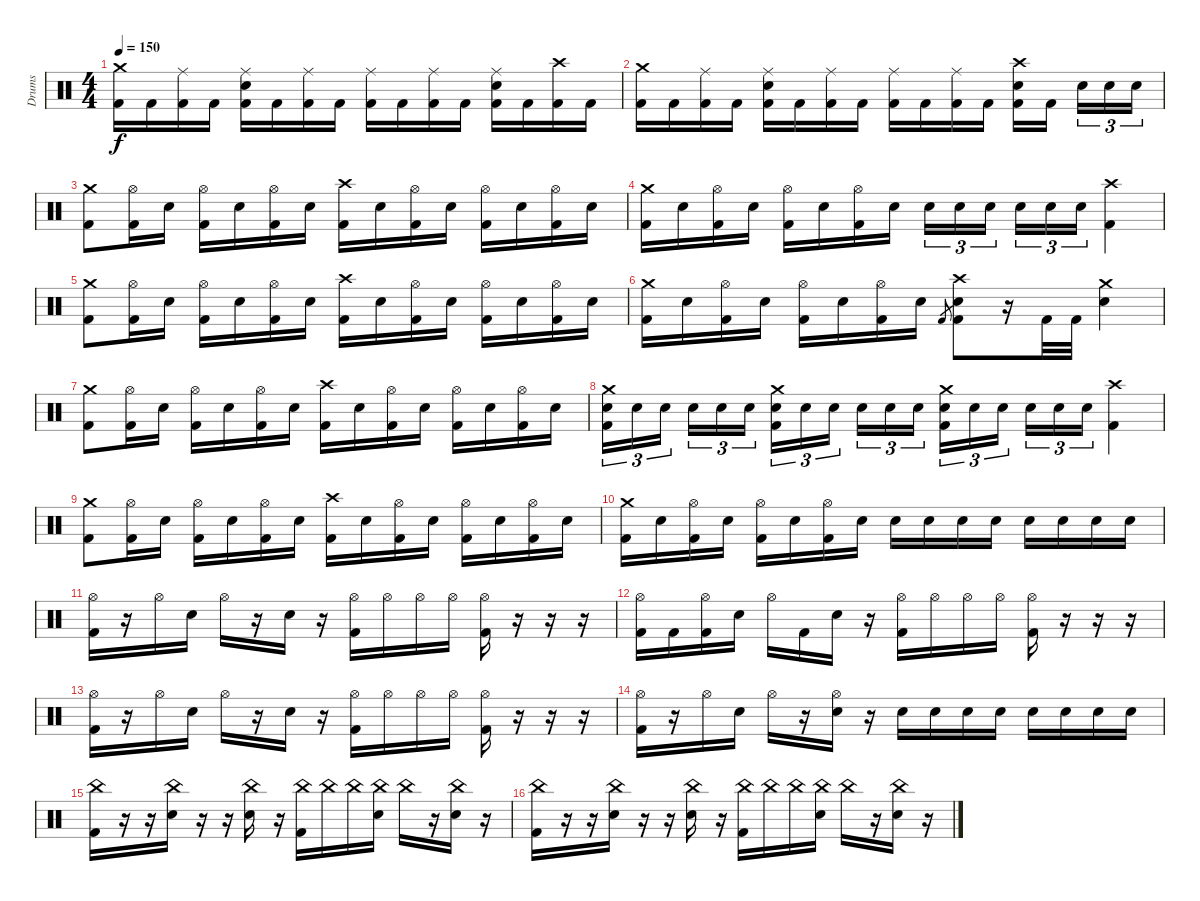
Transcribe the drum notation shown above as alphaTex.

\track ("Drums" "Drums") {instrument percussion}
\staff {score}
\articulation defaults
\ts (4 4)
\tempo 150
\clef neutral
\ks c
("Crash medium (hit)" "Kick (hit) 2").16{dy f} "Kick (hit) 2".16 ("Ride (middle)" "Kick (hit) 2").16 "Kick (hit) 2".16 ("Ride (middle)" "Electric Snare (hit)" "Kick (hit) 2").16 "Kick (hit) 2".16 ("Ride (middle)" "Kick (hit) 2").16 "Kick (hit) 2".16 ("Ride (middle)" "Kick (hit) 2").16 "Kick (hit) 2".16 ("Ride (middle)" "Kick (hit) 2").16 "Kick (hit) 2".16 ("Ride (middle)" "Electric Snare (hit)" "Kick (hit) 2").16 "Kick (hit) 2".16 ("Crash high (hit)" "Kick (hit) 2").16 "Kick (hit) 2".16 |
("Crash medium (hit)" "Kick (hit) 2").16 "Kick (hit) 2".16 ("Ride (middle)" "Kick (hit) 2").16 "Kick (hit) 2".16 ("Ride (middle)" "Electric Snare (hit)" "Kick (hit) 2").16 "Kick (hit) 2".16 ("Ride (middle)" "Kick (hit) 2").16 "Kick (hit) 2".16 ("Ride (middle)" "Kick (hit) 2").16 "Kick (hit) 2".16 ("Ride (middle)" "Kick (hit) 2").16 "Kick (hit) 2".16 ("Crash high (hit)" "Electric Snare (hit)" "Kick (hit) 2").16 "Kick (hit) 2".16 "Electric Snare (hit)".16{tu (3 2)} "Electric Snare (hit)".16{tu (3 2)} "Electric Snare (hit)".16{tu (3 2)} |
\section ("" "")
("Crash medium (hit)" "Kick (hit) 2").8 ("Hi-Hat (open)" "Kick (hit) 2").16 "Electric Snare (hit)".16 ("Hi-Hat (open)" "Kick (hit) 2").16 "Electric Snare (hit)".16 ("Hi-Hat (open)" "Kick (hit) 2").16 "Electric Snare (hit)".16 ("Crash high (hit)" "Kick (hit) 2").16 "Electric Snare (hit)".16 ("Hi-Hat (open)" "Kick (hit) 2").16 "Electric Snare (hit)".16 ("Hi-Hat (open)" "Kick (hit) 2").16 "Electric Snare (hit)".16 ("Hi-Hat (open)" "Kick (hit) 2").16 "Electric Snare (hit)".16 |
("Crash medium (hit)" "Kick (hit) 2").16 "Electric Snare (hit)".16 ("Hi-Hat (open)" "Kick (hit) 2").16 "Electric Snare (hit)".16 ("Hi-Hat (open)" "Kick (hit) 2").16 "Electric Snare (hit)".16 ("Hi-Hat (open)" "Kick (hit) 2").16 "Electric Snare (hit)".16 "Electric Snare (hit)".16{tu (3 2)} "Electric Snare (hit)".16{tu (3 2)} "Electric Snare (hit)".16{tu (3 2)} "Electric Snare (hit)".16{tu (3 2)} "Electric Snare (hit)".16{tu (3 2)} "Electric Snare (hit)".16{tu (3 2)} ("Crash high (hit)" "Kick (hit) 2").4 |
("Crash medium (hit)" "Kick (hit) 2").8 ("Hi-Hat (open)" "Kick (hit) 2").16 "Electric Snare (hit)".16 ("Hi-Hat (open)" "Kick (hit) 2").16 "Electric Snare (hit)".16 ("Hi-Hat (open)" "Kick (hit) 2").16 "Electric Snare (hit)".16 ("Crash high (hit)" "Kick (hit) 2").16 "Electric Snare (hit)".16 ("Hi-Hat (open)" "Kick (hit) 2").16 "Electric Snare (hit)".16 ("Hi-Hat (open)" "Kick (hit) 2").16 "Electric Snare (hit)".16 ("Hi-Hat (open)" "Kick (hit) 2").16 "Electric Snare (hit)".16 |
("Crash medium (hit)" "Kick (hit) 2").16 "Electric Snare (hit)".16 ("Hi-Hat (open)" "Kick (hit) 2").16 "Electric Snare (hit)".16 ("Hi-Hat (open)" "Kick (hit) 2").16 "Electric Snare (hit)".16 ("Hi-Hat (open)" "Kick (hit) 2").16 "Electric Snare (hit)".16 "Kick (hit) 2".8{gr} ("Crash high (hit)" "Electric Snare (hit)" "Kick (hit) 2").8 r.16 "Kick (hit) 2".32 "Kick (hit) 2".32 ("Crash medium (hit)" "Electric Snare (hit)").4 |
("Crash medium (hit)" "Kick (hit) 2").8 ("Hi-Hat (open)" "Kick (hit) 2").16 "Electric Snare (hit)".16 ("Hi-Hat (open)" "Kick (hit) 2").16 "Electric Snare (hit)".16 ("Hi-Hat (open)" "Kick (hit) 2").16 "Electric Snare (hit)".16 ("Crash high (hit)" "Kick (hit) 2").16 "Electric Snare (hit)".16 ("Hi-Hat (open)" "Kick (hit) 2").16 "Electric Snare (hit)".16 ("Hi-Hat (open)" "Kick (hit) 2").16 "Electric Snare (hit)".16 ("Hi-Hat (open)" "Kick (hit) 2").16 "Electric Snare (hit)".16 |
("Crash medium (hit)" "Electric Snare (hit)" "Kick (hit) 2").16{tu (3 2)} "Electric Snare (hit)".16{tu (3 2)} "Electric Snare (hit)".16{tu (3 2)} "Electric Snare (hit)".16{tu (3 2)} "Electric Snare (hit)".16{tu (3 2)} "Electric Snare (hit)".16{tu (3 2)} ("Crash medium (hit)" "Electric Snare (hit)" "Kick (hit) 2").16{tu (3 2)} "Electric Snare (hit)".16{tu (3 2)} "Electric Snare (hit)".16{tu (3 2)} "Electric Snare (hit)".16{tu (3 2)} "Electric Snare (hit)".16{tu (3 2)} "Electric Snare (hit)".16{tu (3 2)} ("Crash medium (hit)" "Electric Snare (hit)" "Kick (hit) 2").16{tu (3 2)} "Electric Snare (hit)".16{tu (3 2)} "Electric Snare (hit)".16{tu (3 2)} "Electric Snare (hit)".16{tu (3 2)} "Electric Snare (hit)".16{tu (3 2)} "Electric Snare (hit)".16{tu (3 2)} ("Crash high (hit)" "Kick (hit) 2").4 |
("Crash medium (hit)" "Kick (hit) 2").8 ("Hi-Hat (open)" "Kick (hit) 2").16 "Electric Snare (hit)".16 ("Hi-Hat (open)" "Kick (hit) 2").16 "Electric Snare (hit)".16 ("Hi-Hat (open)" "Kick (hit) 2").16 "Electric Snare (hit)".16 ("Crash high (hit)" "Kick (hit) 2").16 "Electric Snare (hit)".16 ("Hi-Hat (open)" "Kick (hit) 2").16 "Electric Snare (hit)".16 ("Hi-Hat (open)" "Kick (hit) 2").16 "Electric Snare (hit)".16 ("Hi-Hat (open)" "Kick (hit) 2").16 "Electric Snare (hit)".16 |
("Crash medium (hit)" "Kick (hit) 2").16 "Electric Snare (hit)".16 ("Hi-Hat (open)" "Kick (hit) 2").16 "Electric Snare (hit)".16 ("Hi-Hat (open)" "Kick (hit) 2").16 "Electric Snare (hit)".16 ("Hi-Hat (open)" "Kick (hit) 2").16 "Electric Snare (hit)".16 "Electric Snare (hit)".16 "Electric Snare (hit)".16 "Electric Snare (hit)".16 "Electric Snare (hit)".16 "Electric Snare (hit)".16 "Electric Snare (hit)".16 "Electric Snare (hit)".16 "Electric Snare (hit)".16 |
\section ("" "")
("Hi-Hat (open)" "Kick (hit) 2").16 r.16 "Hi-Hat (open)".16 "Electric Snare (hit)".16 "Hi-Hat (open)".16 r.16 "Electric Snare (hit)".16 r.16 ("Hi-Hat (open)" "Kick (hit) 2").16 "Hi-Hat (open)".16 "Hi-Hat (open)".16 "Hi-Hat (open)".16 ("Hi-Hat (open)" "Kick (hit) 2").16 r.16 r.16 r.16 |
("Hi-Hat (open)" "Kick (hit) 2").16 "Kick (hit) 2".16 ("Hi-Hat (open)" "Kick (hit) 2").16 "Electric Snare (hit)".16 "Hi-Hat (open)".16 "Kick (hit) 2".16 "Electric Snare (hit)".16 r.16 ("Hi-Hat (open)" "Kick (hit) 2").16 "Hi-Hat (open)".16 "Hi-Hat (open)".16 "Hi-Hat (open)".16 ("Hi-Hat (open)" "Kick (hit) 2").16 r.16 r.16 r.16 |
("Hi-Hat (open)" "Kick (hit) 2").16 r.16 "Hi-Hat (open)".16 "Electric Snare (hit)".16 "Hi-Hat (open)".16 r.16 "Electric Snare (hit)".16 r.16 ("Hi-Hat (open)" "Kick (hit) 2").16 "Hi-Hat (open)".16 "Hi-Hat (open)".16 "Hi-Hat (open)".16 ("Hi-Hat (open)" "Kick (hit) 2").16 r.16 r.16 r.16 |
("Hi-Hat (open)" "Kick (hit) 2").16 r.16 "Hi-Hat (open)".16 "Electric Snare (hit)".16 "Hi-Hat (open)".16 r.16 ("Hi-Hat (open)" "Electric Snare (hit)").16 r.16 "Electric Snare (hit)".16 "Electric Snare (hit)".16 "Electric Snare (hit)".16 "Electric Snare (hit)".16 "Electric Snare (hit)".16 "Electric Snare (hit)".16 "Electric Snare (hit)".16 "Electric Snare (hit)".16 |
("China (hit)" "Kick (hit) 2").16 r.16 r.16 ("China (hit)" "Electric Snare (hit)").16 r.16 r.16 ("China (hit)" "Electric Snare (hit)").16 r.16 ("China (hit)" "Kick (hit) 2").16 "China (hit)".16 "China (hit)".16 ("China (hit)" "Electric Snare (hit)").16 "China (hit)".16 r.16 ("China (hit)" "Electric Snare (hit)").16 r.16 |
("China (hit)" "Kick (hit) 2").16 r.16 r.16 ("China (hit)" "Electric Snare (hit)").16 r.16 r.16 ("China (hit)" "Electric Snare (hit)").16 r.16 ("China (hit)" "Kick (hit) 2").16 "China (hit)".16 "China (hit)".16 ("China (hit)" "Electric Snare (hit)").16 "China (hit)".16 r.16 ("China (hit)" "Electric Snare (hit)").16 r.16
